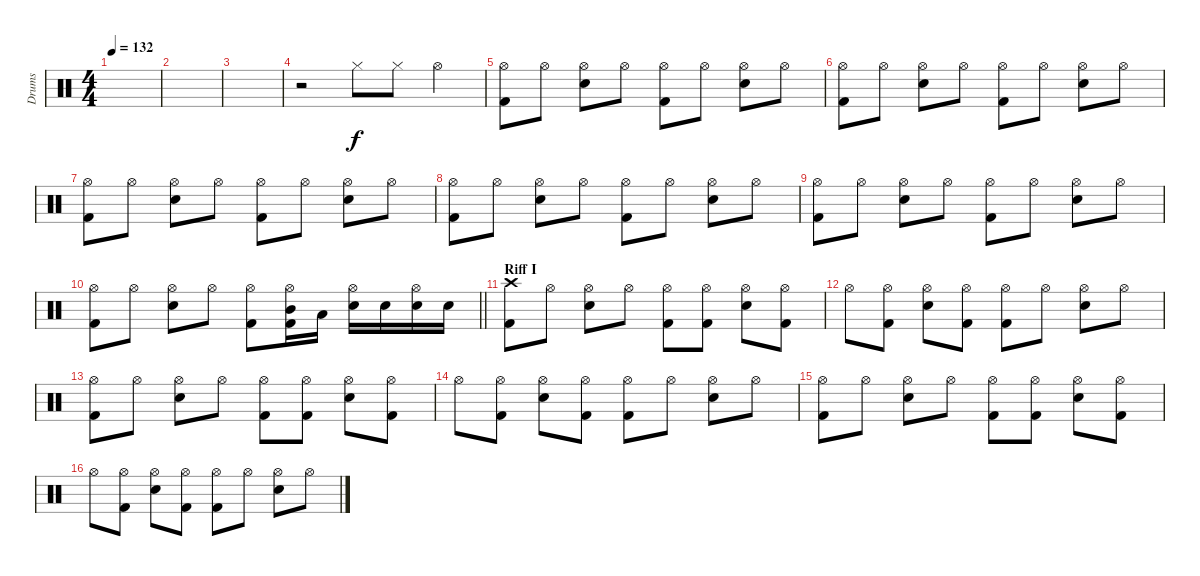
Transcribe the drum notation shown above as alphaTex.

\track ("Drums" "Drums") {instrument percussion}
\staff {score}
\articulation defaults
\ts (4 4)
\tempo 132
\clef neutral
\ks c
|
|
|
r.2 "Hi-Hat (closed)".8 "Hi-Hat (closed)".8 "Hi-Hat (open)".4 |
("Hi-Hat (open)" "Kick (hit) 2").8 "Hi-Hat (open)".8 ("Hi-Hat (open)" "Snare (hit) 2").8 "Hi-Hat (open)".8 ("Hi-Hat (open)" "Kick (hit) 2").8 "Hi-Hat (open)".8 ("Hi-Hat (open)" "Snare (hit) 2").8 "Hi-Hat (open)".8 |
("Hi-Hat (open)" "Kick (hit) 2").8 "Hi-Hat (open)".8 ("Hi-Hat (open)" "Snare (hit) 2").8 "Hi-Hat (open)".8 ("Hi-Hat (open)" "Kick (hit) 2").8 "Hi-Hat (open)".8 ("Hi-Hat (open)" "Snare (hit) 2").8 "Hi-Hat (open)".8 |
("Hi-Hat (open)" "Kick (hit) 2").8 "Hi-Hat (open)".8 ("Hi-Hat (open)" "Snare (hit) 2").8 "Hi-Hat (open)".8 ("Hi-Hat (open)" "Kick (hit) 2").8 "Hi-Hat (open)".8 ("Hi-Hat (open)" "Snare (hit) 2").8 "Hi-Hat (open)".8 |
("Hi-Hat (open)" "Kick (hit) 2").8 "Hi-Hat (open)".8 ("Hi-Hat (open)" "Snare (hit) 2").8 "Hi-Hat (open)".8 ("Hi-Hat (open)" "Kick (hit) 2").8 "Hi-Hat (open)".8 ("Hi-Hat (open)" "Snare (hit) 2").8 "Hi-Hat (open)".8 |
("Hi-Hat (open)" "Kick (hit) 2").8 "Hi-Hat (open)".8 ("Hi-Hat (open)" "Snare (hit) 2").8 "Hi-Hat (open)".8 ("Hi-Hat (open)" "Kick (hit) 2").8 "Hi-Hat (open)".8 ("Hi-Hat (open)" "Snare (hit) 2").8 "Hi-Hat (open)".8 |
\barLineRight lightlight
("Hi-Hat (open)" "Kick (hit) 2").8 "Hi-Hat (open)".8 ("Hi-Hat (open)" "Snare (hit) 2").8 "Hi-Hat (open)".8 ("Hi-Hat (open)" "Kick (hit) 2").8 ("Hi-Hat (open)" "Mid Tom (hit)" "Kick (hit) 2").16 "Low Tom (hit)".16 ("Hi-Hat (open)" "Snare (hit) 2").16 "Snare (hit) 2".16 ("Hi-Hat (open)" "Snare (hit) 2").16 "Snare (hit) 2".16 |
\section ("" "Riff I")
("Crash high (hit)" "Kick (hit) 2").8 "Hi-Hat (open)".8 ("Hi-Hat (open)" "Snare (hit) 2").8 "Hi-Hat (open)".8 ("Hi-Hat (open)" "Kick (hit) 2").8 ("Hi-Hat (open)" "Kick (hit) 2").8 ("Hi-Hat (open)" "Snare (hit) 2").8 ("Hi-Hat (open)" "Kick (hit) 2").8 |
"Hi-Hat (open)".8 ("Hi-Hat (open)" "Kick (hit) 2").8 ("Hi-Hat (open)" "Snare (hit) 2").8 ("Hi-Hat (open)" "Kick (hit) 2").8 ("Hi-Hat (open)" "Kick (hit) 2").8 "Hi-Hat (open)".8 ("Hi-Hat (open)" "Snare (hit) 2").8 "Hi-Hat (open)".8 |
("Hi-Hat (open)" "Kick (hit) 2").8 "Hi-Hat (open)".8 ("Hi-Hat (open)" "Snare (hit) 2").8 "Hi-Hat (open)".8 ("Hi-Hat (open)" "Kick (hit) 2").8 ("Hi-Hat (open)" "Kick (hit) 2").8 ("Hi-Hat (open)" "Snare (hit) 2").8 ("Hi-Hat (open)" "Kick (hit) 2").8 |
"Hi-Hat (open)".8 ("Hi-Hat (open)" "Kick (hit) 2").8 ("Hi-Hat (open)" "Snare (hit) 2").8 ("Hi-Hat (open)" "Kick (hit) 2").8 ("Hi-Hat (open)" "Kick (hit) 2").8 "Hi-Hat (open)".8 ("Hi-Hat (open)" "Snare (hit) 2").8 "Hi-Hat (open)".8 |
("Hi-Hat (open)" "Kick (hit) 2").8 "Hi-Hat (open)".8 ("Hi-Hat (open)" "Snare (hit) 2").8 "Hi-Hat (open)".8 ("Hi-Hat (open)" "Kick (hit) 2").8 ("Hi-Hat (open)" "Kick (hit) 2").8 ("Hi-Hat (open)" "Snare (hit) 2").8 ("Hi-Hat (open)" "Kick (hit) 2").8 |
"Hi-Hat (open)".8 ("Hi-Hat (open)" "Kick (hit) 2").8 ("Hi-Hat (open)" "Snare (hit) 2").8 ("Hi-Hat (open)" "Kick (hit) 2").8 ("Hi-Hat (open)" "Kick (hit) 2").8 "Hi-Hat (open)".8 ("Hi-Hat (open)" "Snare (hit) 2").8 "Hi-Hat (open)".8
